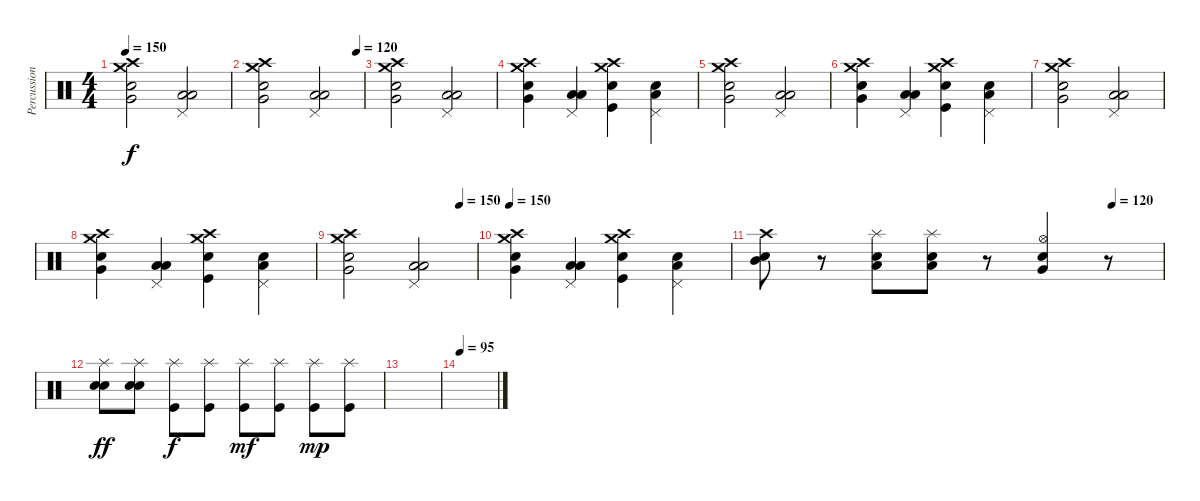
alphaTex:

\track ("Percussion" "Percussion") {instrument percussion}
\staff {score}
\articulation defaults
\ts (4 4)
\tempo 150
\clef neutral
\ks c
("Crash medium (hit)" "Crash high (hit)" "Electric Snare (hit)" "Very Low Tom (hit)").2{dy f} ("Pedal Hi-Hat (hit)" "Low Tom (hit)" "Low Floor Tom (hit)").2 |
\tempo (120 0.9375)
("Crash medium (hit)" "Crash high (hit)" "Electric Snare (hit)" "Very Low Tom (hit)").2 ("Pedal Hi-Hat (hit)" "Low Tom (hit)" "Low Floor Tom (hit)").2 |
("Crash medium (hit)" "Crash high (hit)" "Electric Snare (hit)" "Very Low Tom (hit)").2 ("Pedal Hi-Hat (hit)" "Low Tom (hit)" "Low Floor Tom (hit)").2 |
("Crash medium (hit)" "Crash high (hit)" "Electric Snare (hit)" "Very Low Tom (hit)").4 ("Pedal Hi-Hat (hit)" "Low Tom (hit)" "Low Floor Tom (hit)").4 ("Crash medium (hit)" "Crash high (hit)" "Electric Snare (hit)" "Kick (hit)").4 ("Pedal Hi-Hat (hit)" "Low Tom (hit)" "Electric Snare (hit)").4 |
("Crash medium (hit)" "Crash high (hit)" "Electric Snare (hit)" "Very Low Tom (hit)").2 ("Pedal Hi-Hat (hit)" "Low Tom (hit)" "Low Floor Tom (hit)").2 |
("Crash medium (hit)" "Crash high (hit)" "Electric Snare (hit)" "Very Low Tom (hit)").4 ("Pedal Hi-Hat (hit)" "Low Tom (hit)" "Low Floor Tom (hit)").4 ("Crash medium (hit)" "Crash high (hit)" "Electric Snare (hit)" "Kick (hit)").4 ("Pedal Hi-Hat (hit)" "Low Tom (hit)" "Electric Snare (hit)").4 |
("Crash medium (hit)" "Crash high (hit)" "Electric Snare (hit)" "Very Low Tom (hit)").2 ("Pedal Hi-Hat (hit)" "Low Tom (hit)" "Low Floor Tom (hit)").2 |
("Crash medium (hit)" "Crash high (hit)" "Electric Snare (hit)" "Very Low Tom (hit)").4 ("Pedal Hi-Hat (hit)" "Low Tom (hit)" "Low Floor Tom (hit)").4 ("Crash medium (hit)" "Crash high (hit)" "Electric Snare (hit)" "Kick (hit)").4 ("Pedal Hi-Hat (hit)" "Low Tom (hit)" "Electric Snare (hit)").4 |
\tempo (150 0.875)
("Crash medium (hit)" "Crash high (hit)" "Electric Snare (hit)" "Very Low Tom (hit)").2 ("Pedal Hi-Hat (hit)" "Low Tom (hit)" "Low Floor Tom (hit)").2 |
\tempo 150
("Crash medium (hit)" "Crash high (hit)" "Electric Snare (hit)" "Very Low Tom (hit)").4 ("Pedal Hi-Hat (hit)" "Low Tom (hit)" "Low Floor Tom (hit)").4 ("Crash medium (hit)" "Crash high (hit)" "Electric Snare (hit)" "Kick (hit)").4 ("Pedal Hi-Hat (hit)" "Low Tom (hit)" "Electric Snare (hit)").4 |
\tempo (120 0.875)
("Crash high (hit)" "Mid Tom (hit)" "Electric Snare (hit)").8 r.8 ("Splash (hit)" "Low Tom (hit)" "Electric Snare (hit)").8 ("Splash (hit)" "Low Tom (hit)" "Electric Snare (hit)").8 r.8 ("Hi-Hat (open)" "Very Low Tom (hit)" "Snare (hit) 2").4 r.8 |
("Splash (hit)" "Snare (hit) 2" "Electric Snare (hit)").8{dy ff} ("Splash (hit)" "Snare (hit) 2" "Electric Snare (hit)").8 ("Splash (hit)" "Kick (hit)").8{dy f} ("Splash (hit)" "Kick (hit)").8 ("Splash (hit)" "Kick (hit)").8{dy mf} ("Splash (hit)" "Kick (hit)").8 ("Splash (hit)" "Kick (hit)").8{dy mp} ("Splash (hit)" "Kick (hit)").8 |
|
\tempo 95
